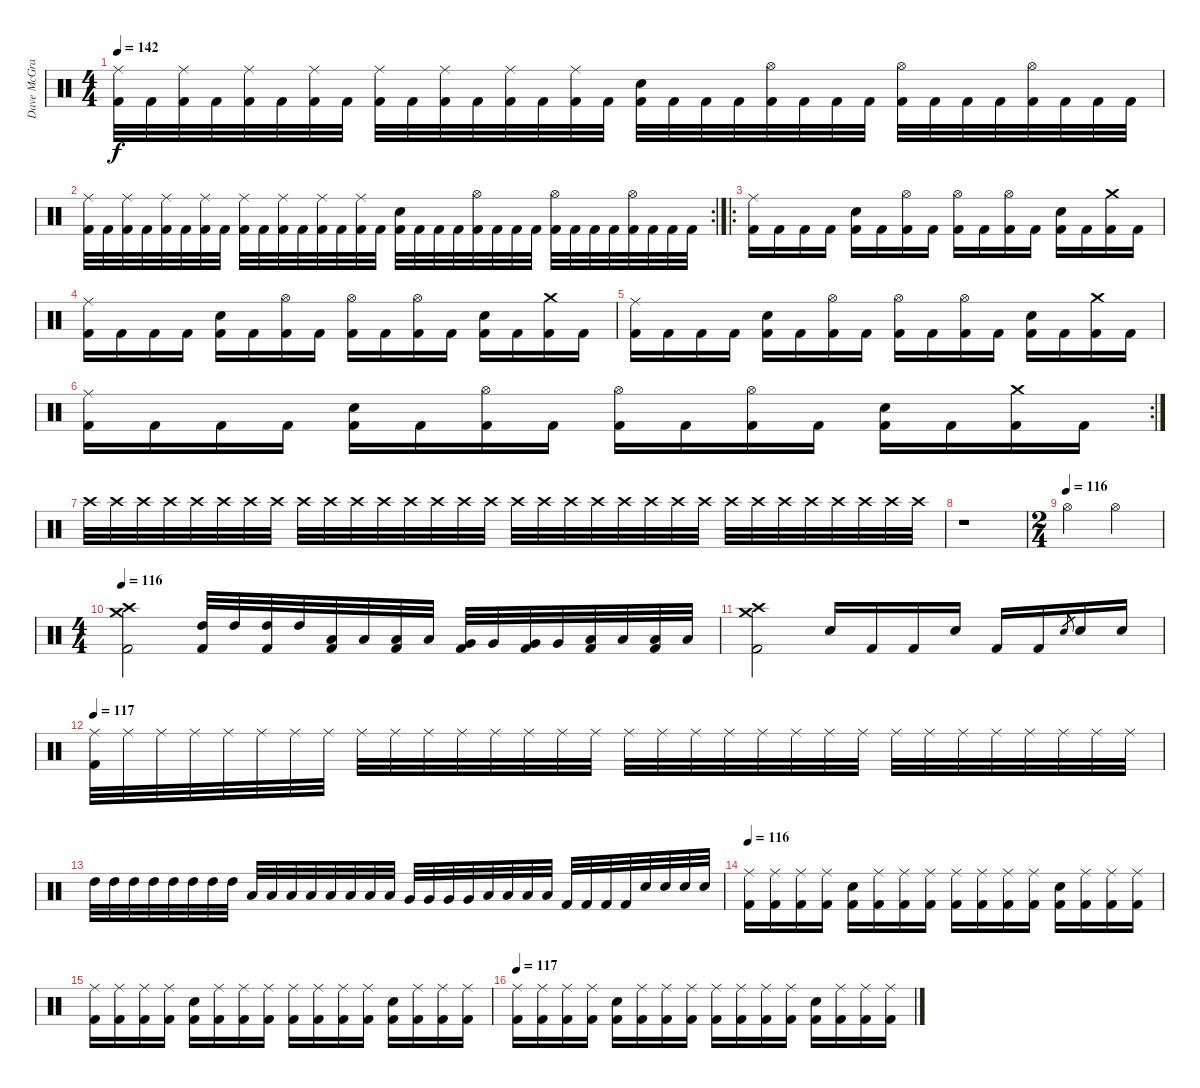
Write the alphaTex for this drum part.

\track ("Dave McGraw" "Dave McGra") {instrument percussion}
\staff {score}
\articulation defaults
\ts (4 4)
\tempo 142
\clef neutral
\ks c
("Ride (middle)" "Kick (hit) 2").32{dy f} "Kick (hit) 2".32 ("Ride (middle)" "Kick (hit) 2").32 "Kick (hit) 2".32 ("Ride (middle)" "Kick (hit) 2").32 "Kick (hit) 2".32 ("Ride (middle)" "Kick (hit) 2").32 "Kick (hit) 2".32 ("Ride (middle)" "Kick (hit) 2").32 "Kick (hit) 2".32 ("Ride (middle)" "Kick (hit) 2").32 "Kick (hit) 2".32 ("Ride (middle)" "Kick (hit) 2").32 "Kick (hit) 2".32 ("Ride (middle)" "Kick (hit) 2").32 "Kick (hit) 2".32 ("Electric Snare (hit)" "Kick (hit) 2").32 "Kick (hit) 2".32 "Kick (hit) 2".32 "Kick (hit) 2".32 ("Hi-Hat (open)" "Kick (hit) 2").32 "Kick (hit) 2".32 "Kick (hit) 2".32 "Kick (hit) 2".32 ("Hi-Hat (open)" "Kick (hit) 2").32 "Kick (hit) 2".32 "Kick (hit) 2".32 "Kick (hit) 2".32 ("Hi-Hat (open)" "Kick (hit) 2").32 "Kick (hit) 2".32 "Kick (hit) 2".32 "Kick (hit) 2".32 |
\rc 2
("Ride (middle)" "Kick (hit) 2").32 "Kick (hit) 2".32 ("Ride (middle)" "Kick (hit) 2").32 "Kick (hit) 2".32 ("Ride (middle)" "Kick (hit) 2").32 "Kick (hit) 2".32 ("Ride (middle)" "Kick (hit) 2").32 "Kick (hit) 2".32 ("Ride (middle)" "Kick (hit) 2").32 "Kick (hit) 2".32 ("Ride (middle)" "Kick (hit) 2").32 "Kick (hit) 2".32 ("Ride (middle)" "Kick (hit) 2").32 "Kick (hit) 2".32 ("Ride (middle)" "Kick (hit) 2").32 "Kick (hit) 2".32 ("Electric Snare (hit)" "Kick (hit) 2").32 "Kick (hit) 2".32 "Kick (hit) 2".32 "Kick (hit) 2".32 ("Hi-Hat (open)" "Kick (hit) 2").32 "Kick (hit) 2".32 "Kick (hit) 2".32 "Kick (hit) 2".32 ("Hi-Hat (open)" "Kick (hit) 2").32 "Kick (hit) 2".32 "Kick (hit) 2".32 "Kick (hit) 2".32 ("Hi-Hat (open)" "Kick (hit) 2").32 "Kick (hit) 2".32 "Kick (hit) 2".32 "Kick (hit) 2".32 |
\ro
("Ride (middle)" "Kick (hit) 2").16 "Kick (hit) 2".16 "Kick (hit) 2".16 "Kick (hit) 2".16 ("Electric Snare (hit)" "Kick (hit) 2").16 "Kick (hit) 2".16 ("Hi-Hat (open)" "Kick (hit) 2").16 "Kick (hit) 2".16 ("Hi-Hat (open)" "Kick (hit) 2").16 "Kick (hit) 2".16 ("Hi-Hat (open)" "Kick (hit) 2").16 "Kick (hit) 2".16 ("Electric Snare (hit)" "Kick (hit) 2").16 "Kick (hit) 2".16 ("Crash medium (hit)" "Kick (hit) 2").16 "Kick (hit) 2".16 |
("Ride (middle)" "Kick (hit) 2").16 "Kick (hit) 2".16 "Kick (hit) 2".16 "Kick (hit) 2".16 ("Electric Snare (hit)" "Kick (hit) 2").16 "Kick (hit) 2".16 ("Hi-Hat (open)" "Kick (hit) 2").16 "Kick (hit) 2".16 ("Hi-Hat (open)" "Kick (hit) 2").16 "Kick (hit) 2".16 ("Hi-Hat (open)" "Kick (hit) 2").16 "Kick (hit) 2".16 ("Electric Snare (hit)" "Kick (hit) 2").16 "Kick (hit) 2".16 ("Crash medium (hit)" "Kick (hit) 2").16 "Kick (hit) 2".16 |
("Ride (middle)" "Kick (hit) 2").16 "Kick (hit) 2".16 "Kick (hit) 2".16 "Kick (hit) 2".16 ("Electric Snare (hit)" "Kick (hit) 2").16 "Kick (hit) 2".16 ("Hi-Hat (open)" "Kick (hit) 2").16 "Kick (hit) 2".16 ("Hi-Hat (open)" "Kick (hit) 2").16 "Kick (hit) 2".16 ("Hi-Hat (open)" "Kick (hit) 2").16 "Kick (hit) 2".16 ("Electric Snare (hit)" "Kick (hit) 2").16 "Kick (hit) 2".16 ("Crash medium (hit)" "Kick (hit) 2").16 "Kick (hit) 2".16 |
\rc 2
("Ride (middle)" "Kick (hit) 2").16 "Kick (hit) 2".16 "Kick (hit) 2".16 "Kick (hit) 2".16 ("Electric Snare (hit)" "Kick (hit) 2").16 "Kick (hit) 2".16 ("Hi-Hat (open)" "Kick (hit) 2").16 "Kick (hit) 2".16 ("Hi-Hat (open)" "Kick (hit) 2").16 "Kick (hit) 2".16 ("Hi-Hat (open)" "Kick (hit) 2").16 "Kick (hit) 2".16 ("Electric Snare (hit)" "Kick (hit) 2").16 "Kick (hit) 2".16 ("Crash medium (hit)" "Kick (hit) 2").16 "Kick (hit) 2".16 |
"Crash high (hit)".32{volume 0} "Crash high (hit)".32{volume 14} "Crash high (hit)".32 "Crash high (hit)".32 "Crash high (hit)".32 "Crash high (hit)".32 "Crash high (hit)".32 "Crash high (hit)".32 "Crash high (hit)".32 "Crash high (hit)".32 "Crash high (hit)".32 "Crash high (hit)".32 "Crash high (hit)".32 "Crash high (hit)".32 "Crash high (hit)".32 "Crash high (hit)".32 "Crash high (hit)".32 "Crash high (hit)".32 "Crash high (hit)".32 "Crash high (hit)".32 "Crash high (hit)".32 "Crash high (hit)".32 "Crash high (hit)".32 "Crash high (hit)".32 "Crash high (hit)".32 "Crash high (hit)".32 "Crash high (hit)".32 "Crash high (hit)".32 "Crash high (hit)".32 "Crash high (hit)".32 "Crash high (hit)".32 "Crash high (hit)".32 |
r.1 |
\ts (2 4)
\tempo (116)
"Hi-Hat (open)".4 "Hi-Hat (open)".4 |
\ts (4 4)
\tempo 116
("Crash medium (hit)" "Crash high (hit)" "Kick (hit) 2").2 ("High Tom (hit)" "Kick (hit) 2").32 "High Tom (hit)".32 ("High Tom (hit)" "Kick (hit) 2").32 "High Tom (hit)".32 ("Low Tom (hit)" "Kick (hit) 2").32 "Low Tom (hit)".32 ("Low Tom (hit)" "Kick (hit) 2").32 "Low Tom (hit)".32 ("Very Low Tom (hit)" "Kick (hit) 2").32 "Very Low Tom (hit)".32 ("Very Low Tom (hit)" "Kick (hit) 2").32 "Very Low Tom (hit)".32 ("Low Floor Tom (hit)" "Kick (hit) 2").32 "Low Floor Tom (hit)".32 ("Low Floor Tom (hit)" "Kick (hit) 2").32 "Low Floor Tom (hit)".32 |
("Crash high (hit)" "Crash medium (hit)" "Kick (hit) 2").2 "Electric Snare (hit)".16 "Kick (hit) 2".16 "Kick (hit) 2".16 "Electric Snare (hit)".16 "Kick (hit) 2".16 "Kick (hit) 2".16 "Electric Snare (hit)".8{gr} "Electric Snare (hit)".16 "Electric Snare (hit)".16 |
\tempo 117
("Ride (middle)" "Kick (hit) 2").32 "Ride (middle)".32 "Ride (middle)".32 "Ride (middle)".32 "Ride (middle)".32 "Ride (middle)".32 "Ride (middle)".32 "Ride (middle)".32 "Ride (middle)".32 "Ride (middle)".32 "Ride (middle)".32 "Ride (middle)".32 "Ride (middle)".32 "Ride (middle)".32 "Ride (middle)".32 "Ride (middle)".32 "Ride (middle)".32 "Ride (middle)".32 "Ride (middle)".32 "Ride (middle)".32 "Ride (middle)".32 "Ride (middle)".32 "Ride (middle)".32 "Ride (middle)".32 "Ride (middle)".32 "Ride (middle)".32 "Ride (middle)".32 "Ride (middle)".32 "Ride (middle)".32 "Ride (middle)".32 "Ride (middle)".32 "Ride (middle)".32 |
"High Tom (hit)".32 "High Tom (hit)".32 "High Tom (hit)".32 "High Tom (hit)".32 "High Tom (hit)".32 "High Tom (hit)".32 "High Tom (hit)".32 "High Tom (hit)".32 "Low Tom (hit)".32 "Low Tom (hit)".32 "Low Tom (hit)".32 "Low Tom (hit)".32 "Low Tom (hit)".32 "Low Tom (hit)".32 "Low Tom (hit)".32 "Low Tom (hit)".32 "Very Low Tom (hit)".32 "Very Low Tom (hit)".32 "Very Low Tom (hit)".32 "Very Low Tom (hit)".32 "Low Floor Tom (hit)".32 "Low Floor Tom (hit)".32 "Low Floor Tom (hit)".32 "Low Floor Tom (hit)".32 "Kick (hit) 2".32 "Kick (hit) 2".32 "Kick (hit) 2".32 "Kick (hit) 2".32 "Electric Snare (hit)".32 "Electric Snare (hit)".32 "Electric Snare (hit)".32 "Electric Snare (hit)".32 |
\tempo 116
("Ride (middle)" "Kick (hit) 2").16 ("Ride (middle)" "Kick (hit) 2").16 ("Ride (middle)" "Kick (hit) 2").16 ("Ride (middle)" "Kick (hit) 2").16 ("Electric Snare (hit)" "Kick (hit) 2").16 ("Ride (middle)" "Kick (hit) 2").16 ("Ride (middle)" "Kick (hit) 2").16 ("Ride (middle)" "Kick (hit) 2").16 ("Ride (middle)" "Kick (hit) 2").16 ("Ride (middle)" "Kick (hit) 2").16 ("Ride (middle)" "Kick (hit) 2").16 ("Ride (middle)" "Kick (hit) 2").16 ("Electric Snare (hit)" "Kick (hit) 2").16 ("Ride (middle)" "Kick (hit) 2").16 ("Ride (middle)" "Kick (hit) 2").16 ("Ride (middle)" "Kick (hit) 2").16 |
("Ride (middle)" "Kick (hit) 2").16 ("Ride (middle)" "Kick (hit) 2").16 ("Ride (middle)" "Kick (hit) 2").16 ("Ride (middle)" "Kick (hit) 2").16 ("Electric Snare (hit)" "Kick (hit) 2").16 ("Ride (middle)" "Kick (hit) 2").16 ("Ride (middle)" "Kick (hit) 2").16 ("Ride (middle)" "Kick (hit) 2").16 ("Ride (middle)" "Kick (hit) 2").16 ("Ride (middle)" "Kick (hit) 2").16 ("Ride (middle)" "Kick (hit) 2").16 ("Ride (middle)" "Kick (hit) 2").16 ("Electric Snare (hit)" "Kick (hit) 2").16 ("Ride (middle)" "Kick (hit) 2").16 ("Ride (middle)" "Kick (hit) 2").16 ("Ride (middle)" "Kick (hit) 2").16 |
\tempo 117
("Ride (middle)" "Kick (hit) 2").16 ("Ride (middle)" "Kick (hit) 2").16 ("Ride (middle)" "Kick (hit) 2").16 ("Ride (middle)" "Kick (hit) 2").16 ("Electric Snare (hit)" "Kick (hit) 2").16 ("Ride (middle)" "Kick (hit) 2").16 ("Ride (middle)" "Kick (hit) 2").16 ("Ride (middle)" "Kick (hit) 2").16 ("Ride (middle)" "Kick (hit) 2").16 ("Ride (middle)" "Kick (hit) 2").16 ("Ride (middle)" "Kick (hit) 2").16 ("Ride (middle)" "Kick (hit) 2").16 ("Electric Snare (hit)" "Kick (hit) 2").16 ("Ride (middle)" "Kick (hit) 2").16 ("Ride (middle)" "Kick (hit) 2").16 ("Ride (middle)" "Kick (hit) 2").16
